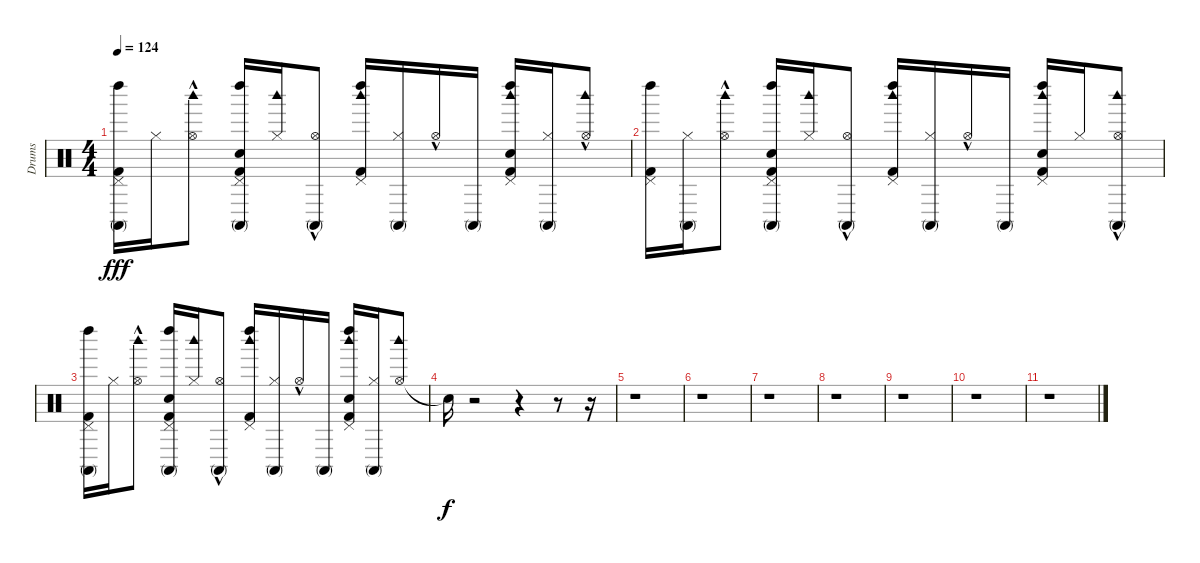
\track ("Drums" "Drums") {instrument percussion}
\staff {score}
\articulation defaults
\ts (4 4)
\tempo 124
\clef neutral
\ks c
("Pedal Hi-Hat (hit)" "Kick (hit) 2" "Conga high (mute)" "Left Maraca (hit)").16{dy fff} "Hi-Hat (closed)".16 ("Hi-Hat (open)"{hac} "Woodblock high (hit)").8 ("Electric Snare (hit)" "Pedal Hi-Hat (hit)" "Kick (hit) 2" "Conga high (mute)" "Left Maraca (hit)").16 ("Hi-Hat (closed)" "Woodblock high (hit)").16 ("Hi-Hat (open)"{hac} "Conga high (mute)").8 ("Pedal Hi-Hat (hit)" "Kick (hit) 2" "Woodblock high (hit)" "Left Maraca (hit)").16 ("Hi-Hat (closed)" "Conga high (mute)").16 "Hi-Hat (open)"{hac}.16 "Conga high (mute)".16 ("Electric Snare (hit)" "Pedal Hi-Hat (hit)" "Kick (hit) 2" "Woodblock high (hit)" "Left Maraca (hit)").16 ("Hi-Hat (closed)" "Conga high (mute)").16 ("Hi-Hat (open)"{hac} "Woodblock high (hit)").8 |
("Pedal Hi-Hat (hit)" "Kick (hit) 2" "Left Maraca (hit)").16 ("Hi-Hat (closed)" "Conga high (mute)").16 ("Hi-Hat (open)"{hac} "Woodblock high (hit)").8 ("Electric Snare (hit)" "Pedal Hi-Hat (hit)" "Kick (hit) 2" "Conga high (mute)" "Left Maraca (hit)").16 ("Hi-Hat (closed)" "Woodblock high (hit)").16 ("Hi-Hat (open)"{hac} "Conga high (mute)").8 ("Pedal Hi-Hat (hit)" "Kick (hit) 2" "Woodblock high (hit)" "Left Maraca (hit)").16 ("Hi-Hat (closed)" "Conga high (mute)").16 "Hi-Hat (open)"{hac}.16 "Conga high (mute)".16 ("Electric Snare (hit)" "Pedal Hi-Hat (hit)" "Kick (hit) 2" "Woodblock high (hit)" "Left Maraca (hit)").16 "Hi-Hat (closed)".16 ("Hi-Hat (open)"{hac} "Conga high (mute)" "Woodblock high (hit)").8 |
("Pedal Hi-Hat (hit)" "Kick (hit) 2" "Conga high (mute)" "Left Maraca (hit)").16 "Hi-Hat (closed)".16 ("Hi-Hat (open)"{hac} "Woodblock high (hit)").8 ("Electric Snare (hit)" "Pedal Hi-Hat (hit)" "Kick (hit) 2" "Conga high (mute)" "Left Maraca (hit)").16 ("Hi-Hat (closed)" "Woodblock high (hit)").16 ("Hi-Hat (open)"{hac} "Conga high (mute)").8 ("Pedal Hi-Hat (hit)" "Kick (hit) 2" "Woodblock high (hit)" "Left Maraca (hit)").16 ("Hi-Hat (closed)" "Conga high (mute)").16 "Hi-Hat (open)"{hac}.16 "Conga high (mute)".16 ("Electric Snare (hit)" "Pedal Hi-Hat (hit)" "Kick (hit) 2" "Woodblock high (hit)" "Left Maraca (hit)").16 ("Hi-Hat (closed)" "Conga high (mute)").16 ("Hi-Hat (open)" "Woodblock high (hit)").8 |
"Snare (hit)"{t}.16{dy f} r.2 r.4 r.8 r.16 |
r.1 |
r.1 |
r.1 |
r.1 |
r.1 |
r.1 |
r.1
